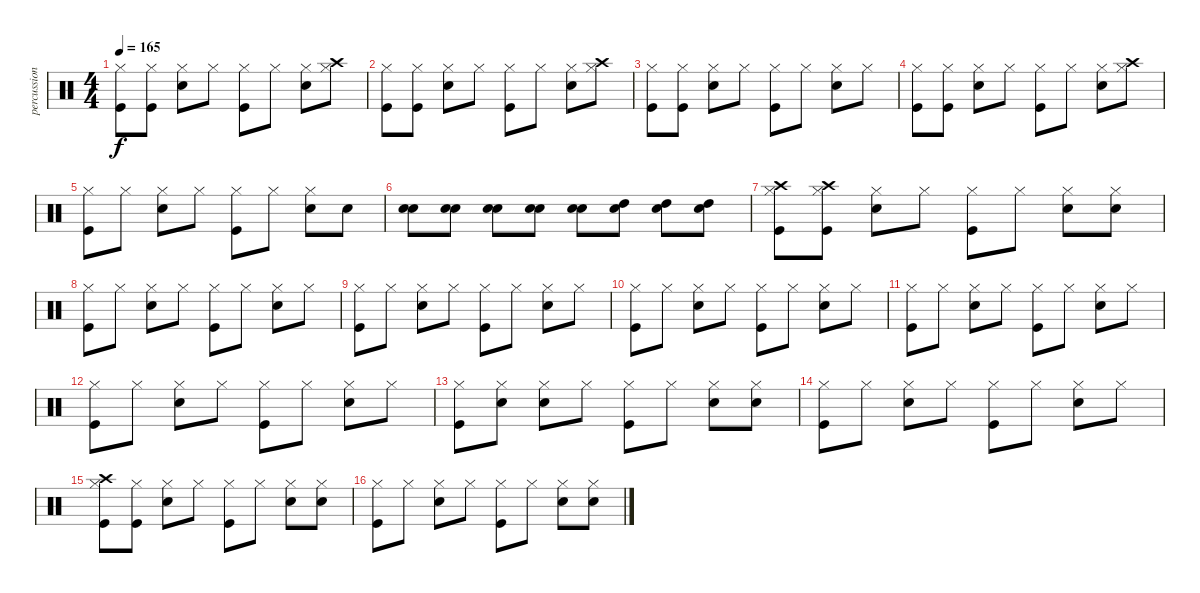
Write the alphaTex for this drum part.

\track ("percussion" "percussion") {instrument percussion}
\staff {score}
\articulation defaults
\ts (4 4)
\tempo 165
\clef neutral
\ks c
("Kick (hit)" "Hi-Hat (closed)").8{dy f} ("Kick (hit)" "Hi-Hat (closed)").8 ("Electric Snare (hit)" "Hi-Hat (closed)").8 "Hi-Hat (closed)".8 ("Kick (hit)" "Hi-Hat (closed)").8 "Hi-Hat (closed)".8 ("Electric Snare (hit)" "Hi-Hat (closed)").8 ("Crash high (hit)" "Hi-Hat (closed)").8 |
("Kick (hit)" "Hi-Hat (closed)").8 ("Kick (hit)" "Hi-Hat (closed)").8 ("Electric Snare (hit)" "Hi-Hat (closed)").8 "Hi-Hat (closed)".8 ("Kick (hit)" "Hi-Hat (closed)").8 "Hi-Hat (closed)".8 ("Electric Snare (hit)" "Hi-Hat (closed)").8 ("Crash high (hit)" "Hi-Hat (closed)").8 |
("Kick (hit)" "Hi-Hat (closed)").8 ("Kick (hit)" "Hi-Hat (closed)").8 ("Electric Snare (hit)" "Hi-Hat (closed)").8 "Hi-Hat (closed)".8 ("Kick (hit)" "Hi-Hat (closed)").8 "Hi-Hat (closed)".8 ("Electric Snare (hit)" "Hi-Hat (closed)").8 "Hi-Hat (closed)".8 |
("Kick (hit)" "Hi-Hat (closed)").8 ("Kick (hit)" "Hi-Hat (closed)").8 ("Electric Snare (hit)" "Hi-Hat (closed)").8 "Hi-Hat (closed)".8 ("Kick (hit)" "Hi-Hat (closed)").8 "Hi-Hat (closed)".8 ("Electric Snare (hit)" "Hi-Hat (closed)").8 ("Crash high (hit)" "Hi-Hat (closed)").8 |
("Kick (hit)" "Hi-Hat (closed)").8 "Hi-Hat (closed)".8 ("Electric Snare (hit)" "Hi-Hat (closed)").8 "Hi-Hat (closed)".8 ("Kick (hit)" "Hi-Hat (closed)").8 "Hi-Hat (closed)".8 ("Electric Snare (hit)" "Hi-Hat (closed)").8 "Electric Snare (hit)".8 |
("Snare (hit) 2" "Electric Snare (hit)").8 ("Snare (hit) 2" "Electric Snare (hit)").8 ("Snare (hit) 2" "Electric Snare (hit)").8 ("Snare (hit) 2" "Electric Snare (hit)").8 ("Snare (hit) 2" "Electric Snare (hit)").8 ("High Tom (hit)" "Electric Snare (hit)").8 ("High Tom (hit)" "Electric Snare (hit)").8 ("High Tom (hit)" "Electric Snare (hit)").8 |
("Crash high (hit)" "Kick (hit)" "Hi-Hat (closed)").8 ("Crash high (hit)" "Kick (hit)" "Hi-Hat (closed)").8 ("Electric Snare (hit)" "Hi-Hat (closed)").8 "Hi-Hat (closed)".8 ("Kick (hit)" "Hi-Hat (closed)").8 "Hi-Hat (closed)".8 ("Electric Snare (hit)" "Hi-Hat (closed)").8 ("Electric Snare (hit)" "Hi-Hat (closed)").8 |
("Kick (hit)" "Hi-Hat (closed)").8 "Hi-Hat (closed)".8 ("Electric Snare (hit)" "Hi-Hat (closed)").8 "Hi-Hat (closed)".8 ("Kick (hit)" "Hi-Hat (closed)").8 "Hi-Hat (closed)".8 ("Electric Snare (hit)" "Hi-Hat (closed)").8 "Hi-Hat (closed)".8 |
("Kick (hit)" "Hi-Hat (closed)").8 "Hi-Hat (closed)".8 ("Electric Snare (hit)" "Hi-Hat (closed)").8 "Hi-Hat (closed)".8 ("Kick (hit)" "Hi-Hat (closed)").8 "Hi-Hat (closed)".8 ("Electric Snare (hit)" "Hi-Hat (closed)").8 "Hi-Hat (closed)".8 |
("Kick (hit)" "Hi-Hat (closed)").8 "Hi-Hat (closed)".8 ("Electric Snare (hit)" "Hi-Hat (closed)").8 "Hi-Hat (closed)".8 ("Kick (hit)" "Hi-Hat (closed)").8 "Hi-Hat (closed)".8 ("Electric Snare (hit)" "Hi-Hat (closed)").8 "Hi-Hat (closed)".8 |
("Kick (hit)" "Hi-Hat (closed)").8 "Hi-Hat (closed)".8 ("Electric Snare (hit)" "Hi-Hat (closed)").8 "Hi-Hat (closed)".8 ("Kick (hit)" "Hi-Hat (closed)").8 "Hi-Hat (closed)".8 ("Electric Snare (hit)" "Hi-Hat (closed)").8 "Hi-Hat (closed)".8 |
("Kick (hit)" "Hi-Hat (closed)").8 "Hi-Hat (closed)".8 ("Electric Snare (hit)" "Hi-Hat (closed)").8 "Hi-Hat (closed)".8 ("Kick (hit)" "Hi-Hat (closed)").8 "Hi-Hat (closed)".8 ("Electric Snare (hit)" "Hi-Hat (closed)").8 "Hi-Hat (closed)".8 |
("Kick (hit)" "Hi-Hat (closed)").8 ("Snare (hit)" "Hi-Hat (closed)").8 ("Electric Snare (hit)" "Hi-Hat (closed)").8 "Hi-Hat (closed)".8 ("Kick (hit)" "Hi-Hat (closed)").8 "Hi-Hat (closed)".8 ("Electric Snare (hit)" "Hi-Hat (closed)").8 ("Electric Snare (hit)" "Hi-Hat (closed)").8 |
("Kick (hit)" "Hi-Hat (closed)").8 "Hi-Hat (closed)".8 ("Electric Snare (hit)" "Hi-Hat (closed)").8 "Hi-Hat (closed)".8 ("Kick (hit)" "Hi-Hat (closed)").8 "Hi-Hat (closed)".8 ("Electric Snare (hit)" "Hi-Hat (closed)").8 "Hi-Hat (closed)".8 |
("Crash high (hit)" "Kick (hit)" "Hi-Hat (closed)").8 ("Kick (hit)" "Hi-Hat (closed)").8 ("Electric Snare (hit)" "Hi-Hat (closed)").8 "Hi-Hat (closed)".8 ("Kick (hit)" "Hi-Hat (closed)").8 "Hi-Hat (closed)".8 ("Electric Snare (hit)" "Hi-Hat (closed)").8 ("Electric Snare (hit)" "Hi-Hat (closed)").8 |
("Kick (hit)" "Hi-Hat (closed)").8 "Hi-Hat (closed)".8 ("Electric Snare (hit)" "Hi-Hat (closed)").8 "Hi-Hat (closed)".8 ("Kick (hit)" "Hi-Hat (closed)").8 "Hi-Hat (closed)".8 ("Electric Snare (hit)" "Hi-Hat (closed)").8 ("Electric Snare (hit)" "Hi-Hat (closed)").8
